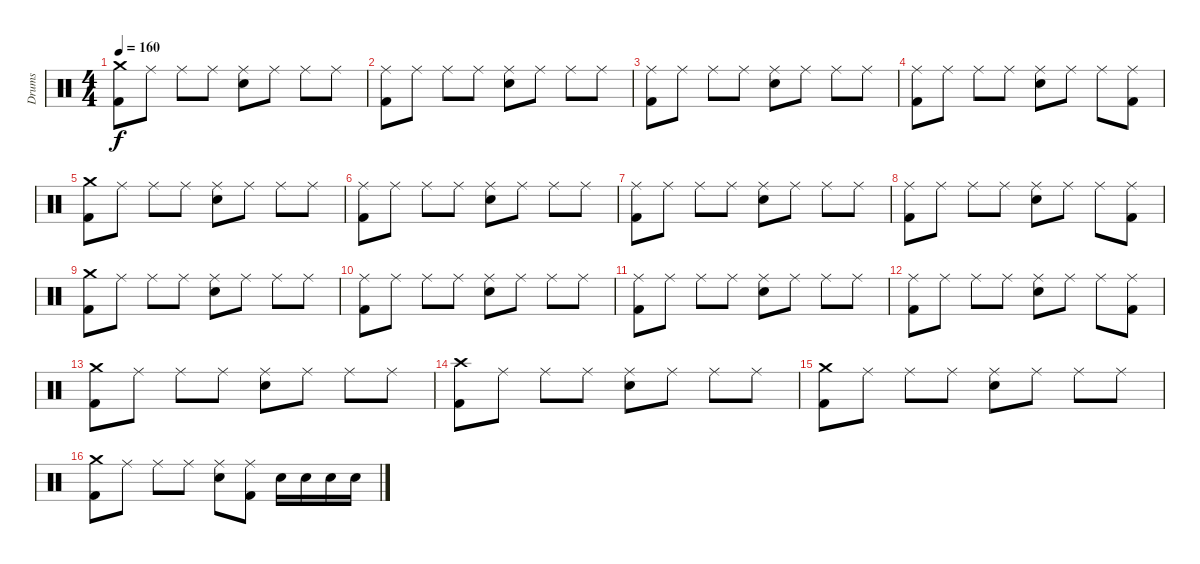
\track ("Drums" "Drums") {instrument percussion}
\staff {score}
\articulation defaults
\ts (4 4)
\tempo 160
\clef neutral
\ks c
("Kick (hit) 2" "Crash medium (hit)").8{dy f} "Ride (middle)".8 "Ride (middle)".8 "Ride (middle)".8 ("Electric Snare (hit)" "Ride (middle)").8 "Ride (middle)".8 "Ride (middle)".8 "Ride (middle)".8 |
("Kick (hit) 2" "Ride (middle)").8 "Ride (middle)".8 "Ride (middle)".8 "Ride (middle)".8 ("Electric Snare (hit)" "Ride (middle)").8 "Ride (middle)".8 "Ride (middle)".8 "Ride (middle)".8 |
("Kick (hit) 2" "Ride (middle)").8 "Ride (middle)".8 "Ride (middle)".8 "Ride (middle)".8 ("Electric Snare (hit)" "Ride (middle)").8 "Ride (middle)".8 "Ride (middle)".8 "Ride (middle)".8 |
("Kick (hit) 2" "Ride (middle)").8 "Ride (middle)".8 "Ride (middle)".8 "Ride (middle)".8 ("Electric Snare (hit)" "Ride (middle)").8 "Ride (middle)".8 "Ride (middle)".8 ("Kick (hit) 2" "Ride (middle)").8 |
("Kick (hit) 2" "Crash medium (hit)").8 "Ride (middle)".8 "Ride (middle)".8 "Ride (middle)".8 ("Electric Snare (hit)" "Ride (middle)").8 "Ride (middle)".8 "Ride (middle)".8 "Ride (middle)".8 |
("Kick (hit) 2" "Ride (middle)").8 "Ride (middle)".8 "Ride (middle)".8 "Ride (middle)".8 ("Electric Snare (hit)" "Ride (middle)").8 "Ride (middle)".8 "Ride (middle)".8 "Ride (middle)".8 |
("Kick (hit) 2" "Ride (middle)").8 "Ride (middle)".8 "Ride (middle)".8 "Ride (middle)".8 ("Electric Snare (hit)" "Ride (middle)").8 "Ride (middle)".8 "Ride (middle)".8 "Ride (middle)".8 |
("Kick (hit) 2" "Ride (middle)").8 "Ride (middle)".8 "Ride (middle)".8 "Ride (middle)".8 ("Electric Snare (hit)" "Ride (middle)").8 "Ride (middle)".8 "Ride (middle)".8 ("Kick (hit) 2" "Ride (middle)").8 |
("Kick (hit) 2" "Crash medium (hit)").8 "Ride (middle)".8 "Ride (middle)".8 "Ride (middle)".8 ("Electric Snare (hit)" "Ride (middle)").8 "Ride (middle)".8 "Ride (middle)".8 "Ride (middle)".8 |
("Kick (hit) 2" "Ride (middle)").8 "Ride (middle)".8 "Ride (middle)".8 "Ride (middle)".8 ("Electric Snare (hit)" "Ride (middle)").8 "Ride (middle)".8 "Ride (middle)".8 "Ride (middle)".8 |
("Kick (hit) 2" "Ride (middle)").8 "Ride (middle)".8 "Ride (middle)".8 "Ride (middle)".8 ("Electric Snare (hit)" "Ride (middle)").8 "Ride (middle)".8 "Ride (middle)".8 "Ride (middle)".8 |
("Kick (hit) 2" "Ride (middle)").8 "Ride (middle)".8 "Ride (middle)".8 "Ride (middle)".8 ("Electric Snare (hit)" "Ride (middle)").8 "Ride (middle)".8 "Ride (middle)".8 ("Kick (hit) 2" "Ride (middle)").8 |
("Kick (hit) 2" "Crash medium (hit)").8 "Ride (middle)".8 "Ride (middle)".8 "Ride (middle)".8 ("Electric Snare (hit)" "Ride (middle)").8 "Ride (middle)".8 "Ride (middle)".8 "Ride (middle)".8 |
("Kick (hit) 2" "Crash high (hit)").8 "Ride (middle)".8 "Ride (middle)".8 "Ride (middle)".8 ("Electric Snare (hit)" "Ride (middle)").8 "Ride (middle)".8 "Ride (middle)".8 "Ride (middle)".8 |
("Kick (hit) 2" "Crash medium (hit)").8 "Ride (middle)".8 "Ride (middle)".8 "Ride (middle)".8 ("Electric Snare (hit)" "Ride (middle)").8 "Ride (middle)".8 "Ride (middle)".8 "Ride (middle)".8 |
("Kick (hit) 2" "Crash medium (hit)").8 "Ride (middle)".8 "Ride (middle)".8 "Ride (middle)".8 ("Electric Snare (hit)" "Ride (middle)").8 ("Kick (hit) 2" "Ride (middle)").8 "Electric Snare (hit)".16 "Electric Snare (hit)".16 "Electric Snare (hit)".16 "Electric Snare (hit)".16
